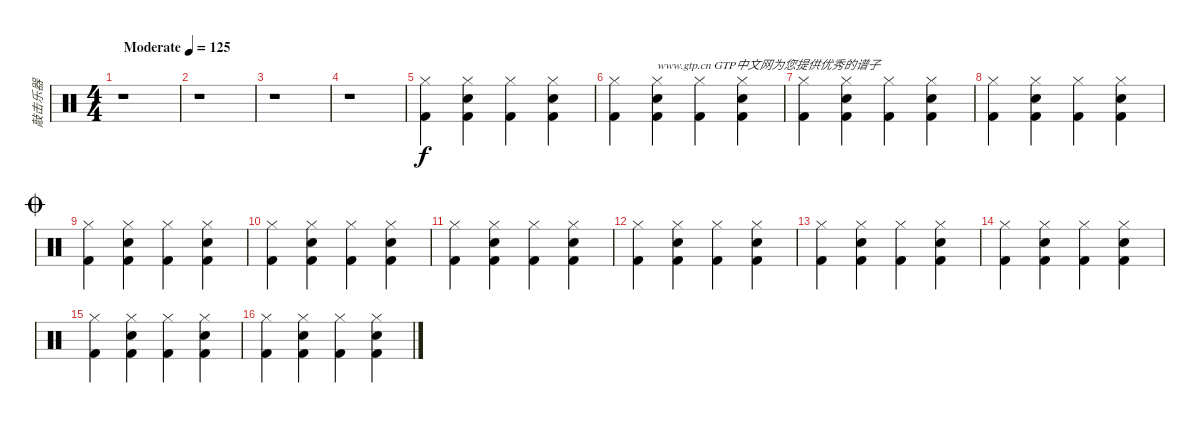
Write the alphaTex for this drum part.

\track ("敲击乐器" "敲击乐器") {solo instrument percussion}
\staff {score}
\articulation defaults
\ts (4 4)
\tempo (125 "Moderate")
\clef neutral
\ks c
r.1{dy f} |
r.1 |
r.1 |
r.1 |
("Hi-Hat (closed)" "Kick (hit) 2").4 ("Kick (hit) 2" "Hand Clap (hit)" "Hi-Hat (closed)").4 ("Kick (hit) 2" "Hi-Hat (closed)").4 ("Kick (hit) 2" "Hi-Hat (closed)" "Hand Clap (hit)").4 |
("Hi-Hat (closed)" "Kick (hit) 2").4 ("Kick (hit) 2" "Hand Clap (hit)" "Hi-Hat (closed)").4{txt "www.gtp.cn GTP中文网为您提供优秀的谱子"} ("Kick (hit) 2" "Hi-Hat (closed)").4 ("Kick (hit) 2" "Hi-Hat (closed)" "Hand Clap (hit)").4 |
("Hi-Hat (closed)" "Kick (hit) 2").4 ("Kick (hit) 2" "Hand Clap (hit)" "Hi-Hat (closed)").4 ("Kick (hit) 2" "Hi-Hat (closed)").4 ("Kick (hit) 2" "Hi-Hat (closed)" "Hand Clap (hit)").4 |
("Hi-Hat (closed)" "Kick (hit) 2").4 ("Kick (hit) 2" "Hand Clap (hit)" "Hi-Hat (closed)").4 ("Kick (hit) 2" "Hi-Hat (closed)").4 ("Kick (hit) 2" "Hi-Hat (closed)" "Hand Clap (hit)").4 |
\jump coda
("Hi-Hat (closed)" "Kick (hit) 2").4 ("Kick (hit) 2" "Hand Clap (hit)" "Hi-Hat (closed)").4 ("Kick (hit) 2" "Hi-Hat (closed)").4 ("Kick (hit) 2" "Hi-Hat (closed)" "Hand Clap (hit)").4 |
("Hi-Hat (closed)" "Kick (hit) 2").4 ("Kick (hit) 2" "Hand Clap (hit)" "Hi-Hat (closed)").4 ("Kick (hit) 2" "Hi-Hat (closed)").4 ("Kick (hit) 2" "Hi-Hat (closed)" "Hand Clap (hit)").4 |
("Hi-Hat (closed)" "Kick (hit) 2").4 ("Kick (hit) 2" "Hand Clap (hit)" "Hi-Hat (closed)").4 ("Kick (hit) 2" "Hi-Hat (closed)").4 ("Kick (hit) 2" "Hi-Hat (closed)" "Hand Clap (hit)").4 |
("Hi-Hat (closed)" "Kick (hit) 2").4 ("Kick (hit) 2" "Hand Clap (hit)" "Hi-Hat (closed)").4 ("Kick (hit) 2" "Hi-Hat (closed)").4 ("Kick (hit) 2" "Hi-Hat (closed)" "Hand Clap (hit)").4 |
("Hi-Hat (closed)" "Kick (hit) 2").4 ("Kick (hit) 2" "Hand Clap (hit)" "Hi-Hat (closed)").4 ("Kick (hit) 2" "Hi-Hat (closed)").4 ("Kick (hit) 2" "Hi-Hat (closed)" "Hand Clap (hit)").4 |
("Hi-Hat (closed)" "Kick (hit) 2").4 ("Kick (hit) 2" "Hand Clap (hit)" "Hi-Hat (closed)").4 ("Kick (hit) 2" "Hi-Hat (closed)").4 ("Kick (hit) 2" "Hi-Hat (closed)" "Hand Clap (hit)").4 |
("Hi-Hat (closed)" "Kick (hit) 2").4 ("Kick (hit) 2" "Hand Clap (hit)" "Hi-Hat (closed)").4 ("Kick (hit) 2" "Hi-Hat (closed)").4 ("Kick (hit) 2" "Hi-Hat (closed)" "Hand Clap (hit)").4 |
("Hi-Hat (closed)" "Kick (hit) 2").4 ("Kick (hit) 2" "Hand Clap (hit)" "Hi-Hat (closed)").4 ("Kick (hit) 2" "Hi-Hat (closed)").4 ("Kick (hit) 2" "Hi-Hat (closed)" "Hand Clap (hit)").4
